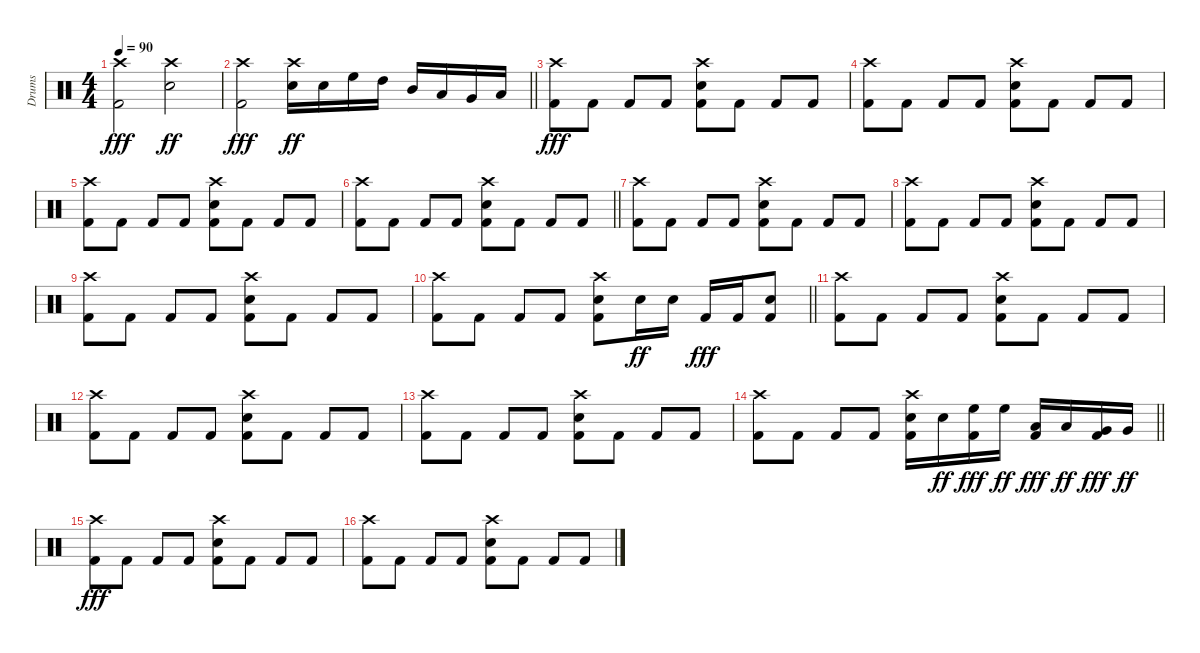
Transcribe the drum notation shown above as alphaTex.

\track ("Drums" "Drums") {instrument percussion}
\staff {score}
\articulation defaults
\ts (4 4)
\tempo 90
\clef neutral
\ks c
("Crash high (hit)" "Kick (hit) 2").2{dy fff} ("Crash high (hit)" "Electric Snare (hit)").2{dy ff} |
\barLineRight lightlight
("Crash high (hit)" "Kick (hit) 2").2{dy fff} ("Crash high (hit)" "Electric Snare (hit)").16{dy ff} "Electric Snare (hit)".16 "High Floor Tom (hit)".16 "High Tom (hit)".16 "Mid Tom (hit)".16 "Low Tom (hit)".16 "Very Low Tom (hit)".16 "Low Floor Tom (hit)".16 |
("Crash high (hit)" "Kick (hit) 2").8{dy fff} "Kick (hit) 2".8 "Kick (hit) 2".8 "Kick (hit) 2".8 ("Crash high (hit)" "Electric Snare (hit)" "Kick (hit) 2").8 "Kick (hit) 2".8 "Kick (hit) 2".8 "Kick (hit) 2".8 |
("Crash high (hit)" "Kick (hit) 2").8 "Kick (hit) 2".8 "Kick (hit) 2".8 "Kick (hit) 2".8 ("Crash high (hit)" "Electric Snare (hit)" "Kick (hit) 2").8 "Kick (hit) 2".8 "Kick (hit) 2".8 "Kick (hit) 2".8 |
("Crash high (hit)" "Kick (hit) 2").8 "Kick (hit) 2".8 "Kick (hit) 2".8 "Kick (hit) 2".8 ("Crash high (hit)" "Electric Snare (hit)" "Kick (hit) 2").8 "Kick (hit) 2".8 "Kick (hit) 2".8 "Kick (hit) 2".8 |
\barLineRight lightlight
("Crash high (hit)" "Kick (hit) 2").8 "Kick (hit) 2".8 "Kick (hit) 2".8 "Kick (hit) 2".8 ("Crash high (hit)" "Electric Snare (hit)" "Kick (hit) 2").8 "Kick (hit) 2".8 "Kick (hit) 2".8 "Kick (hit) 2".8 |
("Crash high (hit)" "Kick (hit) 2").8 "Kick (hit) 2".8 "Kick (hit) 2".8 "Kick (hit) 2".8 ("Crash high (hit)" "Electric Snare (hit)" "Kick (hit) 2").8 "Kick (hit) 2".8 "Kick (hit) 2".8 "Kick (hit) 2".8 |
("Crash high (hit)" "Kick (hit) 2").8 "Kick (hit) 2".8 "Kick (hit) 2".8 "Kick (hit) 2".8 ("Crash high (hit)" "Electric Snare (hit)" "Kick (hit) 2").8 "Kick (hit) 2".8 "Kick (hit) 2".8 "Kick (hit) 2".8 |
("Crash high (hit)" "Kick (hit) 2").8 "Kick (hit) 2".8 "Kick (hit) 2".8 "Kick (hit) 2".8 ("Crash high (hit)" "Electric Snare (hit)" "Kick (hit) 2").8 "Kick (hit) 2".8 "Kick (hit) 2".8 "Kick (hit) 2".8 |
\barLineRight lightlight
("Crash high (hit)" "Kick (hit) 2").8 "Kick (hit) 2".8 "Kick (hit) 2".8 "Kick (hit) 2".8 ("Crash high (hit)" "Electric Snare (hit)" "Kick (hit) 2").8 "Electric Snare (hit)".16{dy ff} "Electric Snare (hit)".16 "Kick (hit) 2".16{dy fff} "Kick (hit) 2".16 ("Electric Snare (hit)" "Kick (hit) 2").8 |
("Crash high (hit)" "Kick (hit) 2").8 "Kick (hit) 2".8 "Kick (hit) 2".8 "Kick (hit) 2".8 ("Crash high (hit)" "Electric Snare (hit)" "Kick (hit) 2").8 "Kick (hit) 2".8 "Kick (hit) 2".8 "Kick (hit) 2".8 |
("Crash high (hit)" "Kick (hit) 2").8 "Kick (hit) 2".8 "Kick (hit) 2".8 "Kick (hit) 2".8 ("Crash high (hit)" "Electric Snare (hit)" "Kick (hit) 2").8 "Kick (hit) 2".8 "Kick (hit) 2".8 "Kick (hit) 2".8 |
("Crash high (hit)" "Kick (hit) 2").8 "Kick (hit) 2".8 "Kick (hit) 2".8 "Kick (hit) 2".8 ("Crash high (hit)" "Electric Snare (hit)" "Kick (hit) 2").8 "Kick (hit) 2".8 "Kick (hit) 2".8 "Kick (hit) 2".8 |
\barLineRight lightlight
("Crash high (hit)" "Kick (hit) 2").8 "Kick (hit) 2".8 "Kick (hit) 2".8 "Kick (hit) 2".8 ("Crash high (hit)" "Electric Snare (hit)" "Kick (hit) 2").16 "Electric Snare (hit)".16{dy ff} ("High Floor Tom (hit)" "Kick (hit) 2").16{dy fff} "High Floor Tom (hit)".16{dy ff} ("Low Tom (hit)" "Kick (hit) 2").16{dy fff} "Low Tom (hit)".16{dy ff} ("Very Low Tom (hit)" "Kick (hit) 2").16{dy fff} "Very Low Tom (hit)".16{dy ff} |
("Crash high (hit)" "Kick (hit) 2").8{dy fff} "Kick (hit) 2".8 "Kick (hit) 2".8 "Kick (hit) 2".8 ("Crash high (hit)" "Electric Snare (hit)" "Kick (hit) 2").8 "Kick (hit) 2".8 "Kick (hit) 2".8 "Kick (hit) 2".8 |
("Crash high (hit)" "Kick (hit) 2").8 "Kick (hit) 2".8 "Kick (hit) 2".8 "Kick (hit) 2".8 ("Crash high (hit)" "Electric Snare (hit)" "Kick (hit) 2").8 "Kick (hit) 2".8 "Kick (hit) 2".8 "Kick (hit) 2".8
